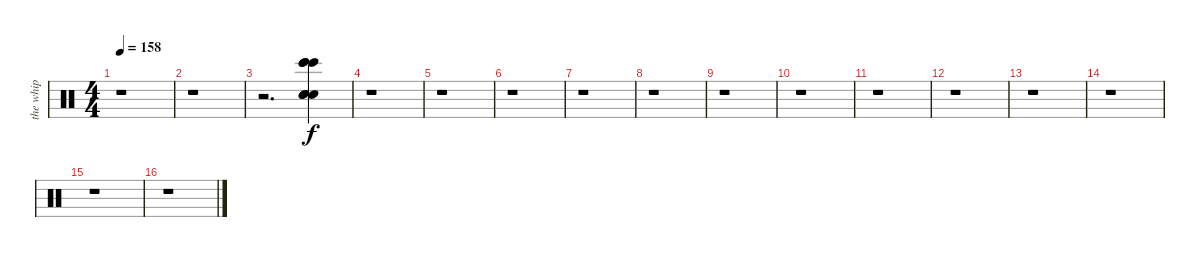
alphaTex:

\track ("the whip " "the whip ") {instrument percussion}
\staff {score}
\articulation defaults
\ts (4 4)
\tempo 158
\clef neutral
\ks c
r.1{dy f} |
r.1 |
r.2{d} ("Hand Clap (hit)" "Hand Clap (hit)" "Hand Clap (hit)" "Bongo High (hit)" "Bongo High (hit)" "Bongo High (hit)").4 |
r.1 |
r.1 |
r.1 |
r.1 |
r.1 |
r.1 |
r.1 |
r.1 |
r.1 |
r.1 |
r.1 |
r.1 |
r.1
